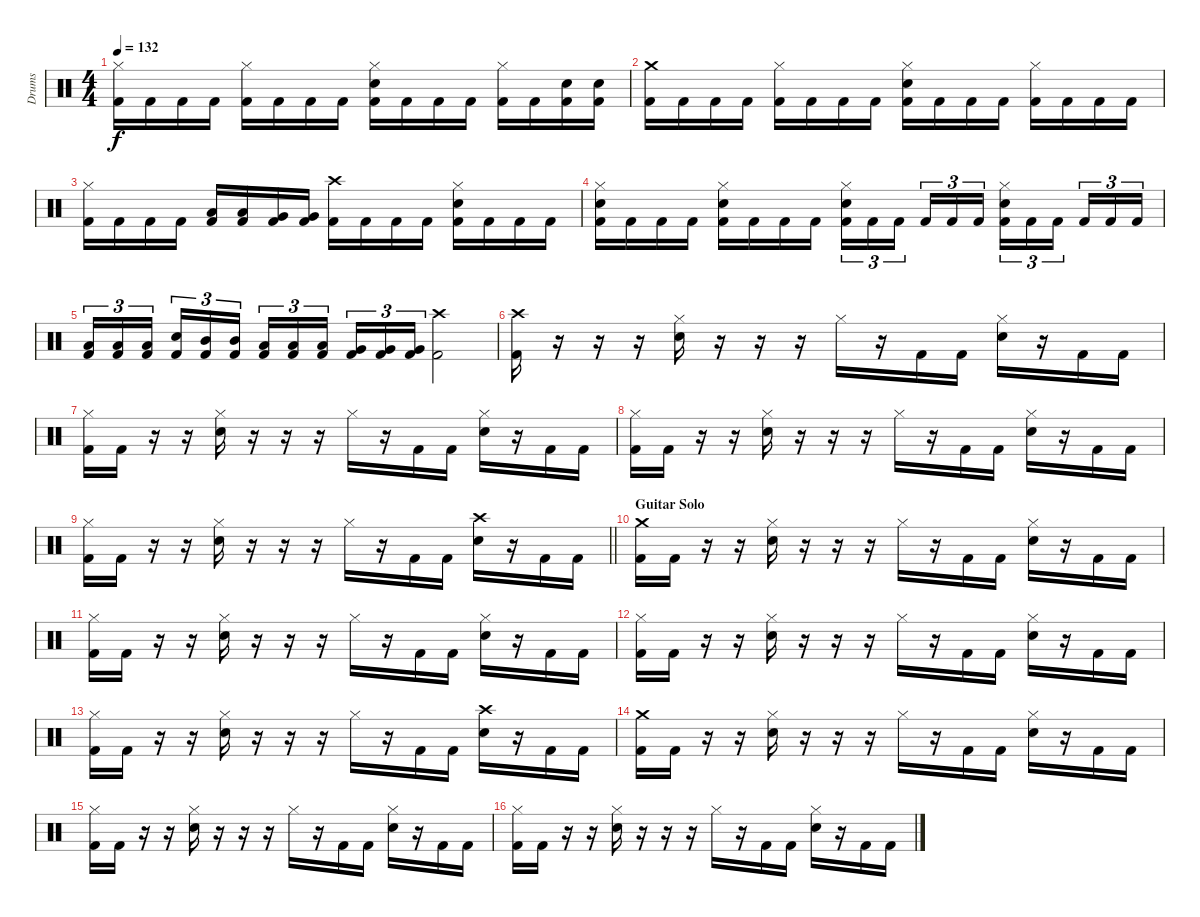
\track ("Drums" "Drums") {instrument percussion}
\staff {score}
\articulation defaults
\ts (4 4)
\tempo 132
\clef neutral
\ks c
("Hi-Hat (closed)" "Kick (hit) 2").16{dy f} "Kick (hit) 2".16 "Kick (hit) 2".16 "Kick (hit) 2".16 ("Hi-Hat (closed)" "Kick (hit) 2").16 "Kick (hit) 2".16 "Kick (hit) 2".16 "Kick (hit) 2".16 ("Hi-Hat (closed)" "Electric Snare (hit)" "Kick (hit) 2").16 "Kick (hit) 2".16 "Kick (hit) 2".16 "Kick (hit) 2".16 ("Hi-Hat (closed)" "Kick (hit) 2").16 "Kick (hit) 2".16 ("Electric Snare (hit)" "Kick (hit) 2").16 ("Electric Snare (hit)" "Kick (hit) 2").16 |
("Crash medium (hit)" "Kick (hit) 2").16 "Kick (hit) 2".16 "Kick (hit) 2".16 "Kick (hit) 2".16 ("Hi-Hat (closed)" "Kick (hit) 2").16 "Kick (hit) 2".16 "Kick (hit) 2".16 "Kick (hit) 2".16 ("Hi-Hat (closed)" "Electric Snare (hit)" "Kick (hit) 2").16 "Kick (hit) 2".16 "Kick (hit) 2".16 "Kick (hit) 2".16 ("Hi-Hat (closed)" "Kick (hit) 2").16 "Kick (hit) 2".16 "Kick (hit) 2".16 "Kick (hit) 2".16 |
("Hi-Hat (closed)" "Kick (hit) 2").16 "Kick (hit) 2".16 "Kick (hit) 2".16 "Kick (hit) 2".16 ("Low Tom (hit)" "Kick (hit) 2").16 ("Low Tom (hit)" "Kick (hit) 2").16 ("Very Low Tom (hit)" "Kick (hit) 2").16 ("Very Low Tom (hit)" "Kick (hit) 2").16 ("Crash high (hit)" "Kick (hit) 2").16 "Kick (hit) 2".16 "Kick (hit) 2".16 "Kick (hit) 2".16 ("Hi-Hat (closed)" "Electric Snare (hit)" "Kick (hit) 2").16 "Kick (hit) 2".16 "Kick (hit) 2".16 "Kick (hit) 2".16 |
("Hi-Hat (closed)" "Electric Snare (hit)" "Kick (hit) 2").16 "Kick (hit) 2".16 "Kick (hit) 2".16 "Kick (hit) 2".16 ("Hi-Hat (closed)" "Electric Snare (hit)" "Kick (hit) 2").16 "Kick (hit) 2".16 "Kick (hit) 2".16 "Kick (hit) 2".16 ("Hi-Hat (closed)" "Electric Snare (hit)" "Kick (hit) 2").16{tu (3 2)} "Kick (hit) 2".16{tu (3 2)} "Kick (hit) 2".16{tu (3 2) beam splitsecondary} "Kick (hit) 2".16{tu (3 2)} "Kick (hit) 2".16{tu (3 2)} "Kick (hit) 2".16{tu (3 2)} ("Hi-Hat (closed)" "Electric Snare (hit)" "Kick (hit) 2").16{tu (3 2)} "Kick (hit) 2".16{tu (3 2)} "Kick (hit) 2".16{tu (3 2) beam splitsecondary} "Kick (hit) 2".16{tu (3 2)} "Kick (hit) 2".16{tu (3 2)} "Kick (hit) 2".16{tu (3 2)} |
("Low Tom (hit)" "Kick (hit) 2").16{tu (3 2)} ("Low Tom (hit)" "Kick (hit) 2").16{tu (3 2)} ("Low Tom (hit)" "Kick (hit) 2").16{tu (3 2) beam splitsecondary} ("Electric Snare (hit)" "Kick (hit) 2").16{tu (3 2)} ("Mid Tom (hit)" "Kick (hit) 2").16{tu (3 2)} ("Mid Tom (hit)" "Kick (hit) 2").16{tu (3 2)} ("Low Tom (hit)" "Kick (hit) 2").16{tu (3 2)} ("Low Tom (hit)" "Kick (hit) 2").16{tu (3 2)} ("Low Tom (hit)" "Kick (hit) 2").16{tu (3 2) beam splitsecondary} ("Very Low Tom (hit)" "Kick (hit) 2").16{tu (3 2)} ("Very Low Tom (hit)" "Kick (hit) 2").16{tu (3 2)} ("Very Low Tom (hit)" "Kick (hit) 2").16{tu (3 2)} ("Crash high (hit)" "Kick (hit) 2").2 |
("Crash high (hit)" "Kick (hit) 2").16 r.16 r.16 r.16 ("Hi-Hat (closed)" "Electric Snare (hit)").16 r.16 r.16 r.16 "Hi-Hat (closed)".16 r.16 "Kick (hit) 2".16 "Kick (hit) 2".16 ("Hi-Hat (closed)" "Electric Snare (hit)").16 r.16 "Kick (hit) 2".16 "Kick (hit) 2".16 |
("Hi-Hat (closed)" "Kick (hit) 2").16 "Kick (hit) 2".16 r.16 r.16 ("Hi-Hat (closed)" "Electric Snare (hit)").16 r.16 r.16 r.16 "Hi-Hat (closed)".16 r.16 "Kick (hit) 2".16 "Kick (hit) 2".16 ("Hi-Hat (closed)" "Electric Snare (hit)").16 r.16 "Kick (hit) 2".16 "Kick (hit) 2".16 |
("Hi-Hat (closed)" "Kick (hit) 2").16 "Kick (hit) 2".16 r.16 r.16 ("Hi-Hat (closed)" "Electric Snare (hit)").16 r.16 r.16 r.16 "Hi-Hat (closed)".16 r.16 "Kick (hit) 2".16 "Kick (hit) 2".16 ("Hi-Hat (closed)" "Electric Snare (hit)").16 r.16 "Kick (hit) 2".16 "Kick (hit) 2".16 |
\barLineRight lightlight
("Hi-Hat (closed)" "Kick (hit) 2").16 "Kick (hit) 2".16 r.16 r.16 ("Hi-Hat (closed)" "Electric Snare (hit)").16 r.16 r.16 r.16 "Hi-Hat (closed)".16 r.16 "Kick (hit) 2".16 "Kick (hit) 2".16 ("Crash high (hit)" "Electric Snare (hit)").16 r.16 "Kick (hit) 2".16 "Kick (hit) 2".16 |
\section ("" "Guitar Solo")
("Crash medium (hit)" "Kick (hit) 2").16 "Kick (hit) 2".16 r.16 r.16 ("Hi-Hat (closed)" "Electric Snare (hit)").16 r.16 r.16 r.16 "Hi-Hat (closed)".16 r.16 "Kick (hit) 2".16 "Kick (hit) 2".16 ("Hi-Hat (closed)" "Electric Snare (hit)").16 r.16 "Kick (hit) 2".16 "Kick (hit) 2".16 |
("Hi-Hat (closed)" "Kick (hit) 2").16 "Kick (hit) 2".16 r.16 r.16 ("Hi-Hat (closed)" "Electric Snare (hit)").16 r.16 r.16 r.16 "Hi-Hat (closed)".16 r.16 "Kick (hit) 2".16 "Kick (hit) 2".16 ("Hi-Hat (closed)" "Electric Snare (hit)").16 r.16 "Kick (hit) 2".16 "Kick (hit) 2".16 |
("Hi-Hat (closed)" "Kick (hit) 2").16 "Kick (hit) 2".16 r.16 r.16 ("Hi-Hat (closed)" "Electric Snare (hit)").16 r.16 r.16 r.16 "Hi-Hat (closed)".16 r.16 "Kick (hit) 2".16 "Kick (hit) 2".16 ("Hi-Hat (closed)" "Electric Snare (hit)").16 r.16 "Kick (hit) 2".16 "Kick (hit) 2".16 |
("Hi-Hat (closed)" "Kick (hit) 2").16 "Kick (hit) 2".16 r.16 r.16 ("Hi-Hat (closed)" "Electric Snare (hit)").16 r.16 r.16 r.16 "Hi-Hat (closed)".16 r.16 "Kick (hit) 2".16 "Kick (hit) 2".16 ("Crash high (hit)" "Electric Snare (hit)").16 r.16 "Kick (hit) 2".16 "Kick (hit) 2".16 |
("Crash medium (hit)" "Kick (hit) 2").16 "Kick (hit) 2".16 r.16 r.16 ("Hi-Hat (closed)" "Electric Snare (hit)").16 r.16 r.16 r.16 "Hi-Hat (closed)".16 r.16 "Kick (hit) 2".16 "Kick (hit) 2".16 ("Hi-Hat (closed)" "Electric Snare (hit)").16 r.16 "Kick (hit) 2".16 "Kick (hit) 2".16 |
("Hi-Hat (closed)" "Kick (hit) 2").16 "Kick (hit) 2".16 r.16 r.16 ("Hi-Hat (closed)" "Electric Snare (hit)").16 r.16 r.16 r.16 "Hi-Hat (closed)".16 r.16 "Kick (hit) 2".16 "Kick (hit) 2".16 ("Hi-Hat (closed)" "Electric Snare (hit)").16 r.16 "Kick (hit) 2".16 "Kick (hit) 2".16 |
("Hi-Hat (closed)" "Kick (hit) 2").16 "Kick (hit) 2".16 r.16 r.16 ("Hi-Hat (closed)" "Electric Snare (hit)").16 r.16 r.16 r.16 "Hi-Hat (closed)".16 r.16 "Kick (hit) 2".16 "Kick (hit) 2".16 ("Hi-Hat (closed)" "Electric Snare (hit)").16 r.16 "Kick (hit) 2".16 "Kick (hit) 2".16
